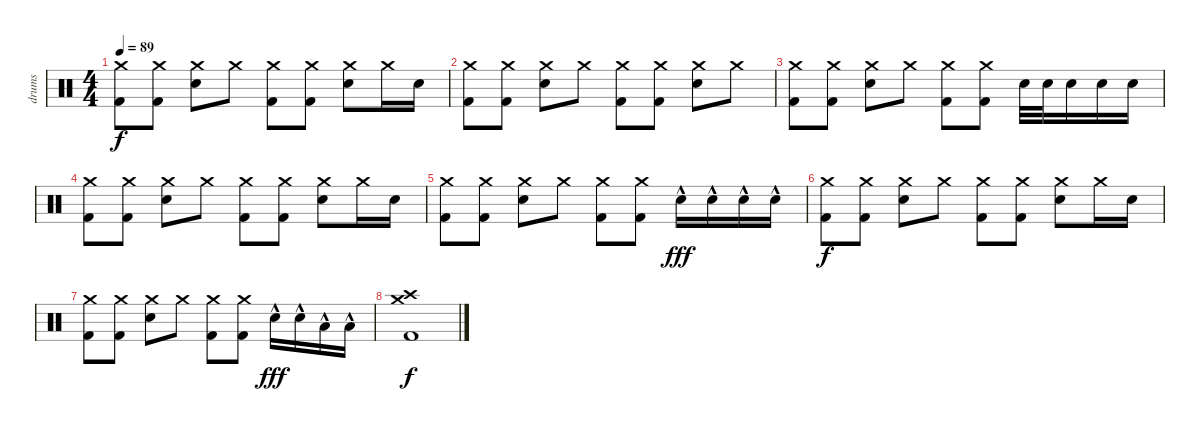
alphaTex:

\track ("drums" "drums") {instrument percussion}
\staff {score}
\articulation defaults
\ts (4 4)
\tempo 89
\clef neutral
\ks c
("Crash medium (hit)" "Kick (hit) 2").8{dy f} ("Crash medium (hit)" "Kick (hit) 2").8 ("Crash medium (hit)" "Electric Snare (hit)").8 "Crash medium (hit)".8 ("Crash medium (hit)" "Kick (hit) 2").8 ("Crash medium (hit)" "Kick (hit) 2").8 ("Crash medium (hit)" "Electric Snare (hit)").8 "Crash medium (hit)".16 "Electric Snare (hit)".16 |
("Crash medium (hit)" "Kick (hit) 2").8 ("Crash medium (hit)" "Kick (hit) 2").8 ("Crash medium (hit)" "Electric Snare (hit)").8 "Crash medium (hit)".8 ("Crash medium (hit)" "Kick (hit) 2").8 ("Crash medium (hit)" "Kick (hit) 2").8 ("Crash medium (hit)" "Electric Snare (hit)").8 "Crash medium (hit)".8 |
("Crash medium (hit)" "Kick (hit) 2").8 ("Crash medium (hit)" "Kick (hit) 2").8 ("Crash medium (hit)" "Electric Snare (hit)").8 "Crash medium (hit)".8 ("Crash medium (hit)" "Kick (hit) 2").8 ("Crash medium (hit)" "Kick (hit) 2").8 "Electric Snare (hit)".32 "Electric Snare (hit)".32 "Electric Snare (hit)".16 "Electric Snare (hit)".16 "Electric Snare (hit)".16 |
("Crash medium (hit)" "Kick (hit) 2").8 ("Crash medium (hit)" "Kick (hit) 2").8 ("Crash medium (hit)" "Electric Snare (hit)").8 "Crash medium (hit)".8 ("Crash medium (hit)" "Kick (hit) 2").8 ("Crash medium (hit)" "Kick (hit) 2").8 ("Crash medium (hit)" "Electric Snare (hit)").8 "Crash medium (hit)".16 "Electric Snare (hit)".16 |
("Crash medium (hit)" "Kick (hit) 2").8 ("Crash medium (hit)" "Kick (hit) 2").8 ("Crash medium (hit)" "Electric Snare (hit)").8 "Crash medium (hit)".8 ("Crash medium (hit)" "Kick (hit) 2").8 ("Crash medium (hit)" "Kick (hit) 2").8 "Electric Snare (hit)"{hac}.16{dy fff} "Electric Snare (hit)"{hac}.16 "Electric Snare (hit)"{hac}.16 "Electric Snare (hit)"{hac}.16 |
("Crash medium (hit)" "Kick (hit) 2").8{dy f} ("Crash medium (hit)" "Kick (hit) 2").8 ("Crash medium (hit)" "Electric Snare (hit)").8 "Crash medium (hit)".8 ("Crash medium (hit)" "Kick (hit) 2").8 ("Crash medium (hit)" "Kick (hit) 2").8 ("Crash medium (hit)" "Electric Snare (hit)").8 "Crash medium (hit)".16 "Electric Snare (hit)".16 |
("Crash medium (hit)" "Kick (hit) 2").8 ("Crash medium (hit)" "Kick (hit) 2").8 ("Crash medium (hit)" "Electric Snare (hit)").8 "Crash medium (hit)".8 ("Crash medium (hit)" "Kick (hit) 2").8 ("Crash medium (hit)" "Kick (hit) 2").8 "Electric Snare (hit)"{hac}.16{dy fff} "Electric Snare (hit)"{hac}.16 "Low Floor Tom (hit)"{hac}.16 "Low Floor Tom (hit)"{hac}.16 |
("Crash medium (hit)" "Crash high (hit)" "Kick (hit) 2").1{dy f}
